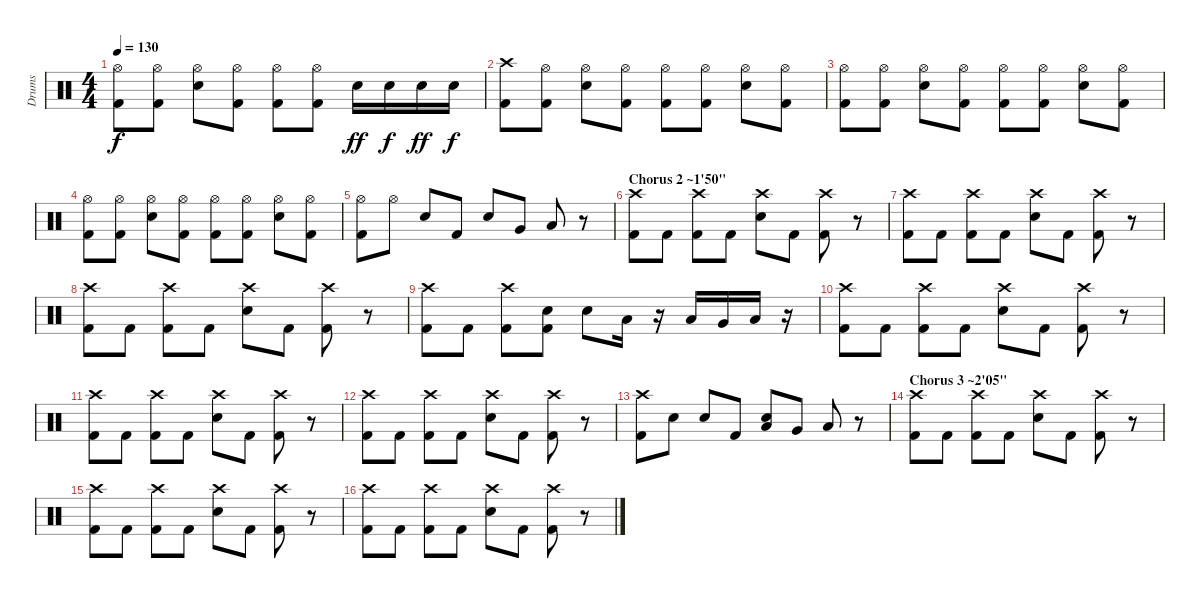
\track ("Drums" "Drums") {instrument percussion}
\staff {score}
\articulation defaults
\ts (4 4)
\tempo 130
\clef neutral
\ks c
("Hi-Hat (open)" "Kick (hit) 2").8{dy f} ("Hi-Hat (open)" "Kick (hit) 2").8 ("Hi-Hat (open)" "Electric Snare (hit)").8 ("Hi-Hat (open)" "Kick (hit) 2").8 ("Hi-Hat (open)" "Kick (hit) 2").8 ("Hi-Hat (open)" "Kick (hit) 2").8 "Electric Snare (hit)".16{dy ff} "Electric Snare (hit)".16{dy f} "Electric Snare (hit)".16{dy ff} "Electric Snare (hit)".16{dy f} |
("Kick (hit) 2" "Crash high (hit)").8 ("Hi-Hat (open)" "Kick (hit) 2").8 ("Hi-Hat (open)" "Electric Snare (hit)").8 ("Hi-Hat (open)" "Kick (hit) 2").8 ("Hi-Hat (open)" "Kick (hit) 2").8 ("Hi-Hat (open)" "Kick (hit) 2").8 ("Hi-Hat (open)" "Electric Snare (hit)").8 ("Hi-Hat (open)" "Kick (hit) 2").8 |
("Hi-Hat (open)" "Kick (hit) 2").8 ("Hi-Hat (open)" "Kick (hit) 2").8 ("Hi-Hat (open)" "Electric Snare (hit)").8 ("Hi-Hat (open)" "Kick (hit) 2").8 ("Hi-Hat (open)" "Kick (hit) 2").8 ("Hi-Hat (open)" "Kick (hit) 2").8 ("Hi-Hat (open)" "Electric Snare (hit)").8 ("Hi-Hat (open)" "Kick (hit) 2").8 |
("Hi-Hat (open)" "Kick (hit) 2").8 ("Hi-Hat (open)" "Kick (hit) 2").8 ("Hi-Hat (open)" "Electric Snare (hit)").8 ("Hi-Hat (open)" "Kick (hit) 2").8 ("Hi-Hat (open)" "Kick (hit) 2").8 ("Hi-Hat (open)" "Kick (hit) 2").8 ("Hi-Hat (open)" "Electric Snare (hit)").8 ("Hi-Hat (open)" "Kick (hit) 2").8 |
("Hi-Hat (open)" "Kick (hit) 2").8 "Hi-Hat (open)".8 "Electric Snare (hit)".8 "Kick (hit) 2".8 "Electric Snare (hit)".8 "Very Low Tom (hit)".8 "Low Floor Tom (hit)".8 r.8 |
\section ("" "Chorus 2 ~1'50\"")
("Crash high (hit)" "Kick (hit) 2").8 "Kick (hit) 2".8 ("Crash high (hit)" "Kick (hit) 2").8 "Kick (hit) 2".8 ("Crash high (hit)" "Electric Snare (hit)").8 "Kick (hit) 2".8 ("Crash high (hit)" "Kick (hit) 2").8 r.8 |
("Crash high (hit)" "Kick (hit) 2").8 "Kick (hit) 2".8 ("Crash high (hit)" "Kick (hit) 2").8 "Kick (hit) 2".8 ("Crash high (hit)" "Electric Snare (hit)").8 "Kick (hit) 2".8 ("Crash high (hit)" "Kick (hit) 2").8 r.8 |
("Crash high (hit)" "Kick (hit) 2").8 "Kick (hit) 2".8 ("Crash high (hit)" "Kick (hit) 2").8 "Kick (hit) 2".8 ("Crash high (hit)" "Electric Snare (hit)").8 "Kick (hit) 2".8 ("Crash high (hit)" "Kick (hit) 2").8 r.8 |
("Crash high (hit)" "Kick (hit) 2").8 "Kick (hit) 2".8 ("Crash high (hit)" "Kick (hit) 2").8 ("Electric Snare (hit)" "Kick (hit) 2").8 "Electric Snare (hit)".8 "Low Floor Tom (hit)".16 r.16 "Low Tom (hit)".16 "Very Low Tom (hit)".16 "Low Floor Tom (hit)".16 r.16 |
("Crash high (hit)" "Kick (hit) 2").8 "Kick (hit) 2".8 ("Crash high (hit)" "Kick (hit) 2").8 "Kick (hit) 2".8 ("Crash high (hit)" "Electric Snare (hit)").8 "Kick (hit) 2".8 ("Crash high (hit)" "Kick (hit) 2").8 r.8 |
("Crash high (hit)" "Kick (hit) 2").8 "Kick (hit) 2".8 ("Crash high (hit)" "Kick (hit) 2").8 "Kick (hit) 2".8 ("Crash high (hit)" "Electric Snare (hit)").8 "Kick (hit) 2".8 ("Crash high (hit)" "Kick (hit) 2").8 r.8 |
("Crash high (hit)" "Kick (hit) 2").8 "Kick (hit) 2".8 ("Crash high (hit)" "Kick (hit) 2").8 "Kick (hit) 2".8 ("Crash high (hit)" "Electric Snare (hit)").8 "Kick (hit) 2".8 ("Crash high (hit)" "Kick (hit) 2").8 r.8 |
("Crash high (hit)" "Kick (hit) 2").8 "Electric Snare (hit)".8 "Electric Snare (hit)".8 "Kick (hit) 2".8 ("Low Tom (hit)" "Electric Snare (hit)").8 "Very Low Tom (hit)".8 "Low Floor Tom (hit)".8 r.8 |
\section ("" "Chorus 3 ~2'05\"")
("Crash high (hit)" "Kick (hit) 2").8 "Kick (hit) 2".8 ("Crash high (hit)" "Kick (hit) 2").8 "Kick (hit) 2".8 ("Crash high (hit)" "Electric Snare (hit)").8 "Kick (hit) 2".8 ("Crash high (hit)" "Kick (hit) 2").8 r.8 |
("Crash high (hit)" "Kick (hit) 2").8 "Kick (hit) 2".8 ("Crash high (hit)" "Kick (hit) 2").8 "Kick (hit) 2".8 ("Crash high (hit)" "Electric Snare (hit)").8 "Kick (hit) 2".8 ("Crash high (hit)" "Kick (hit) 2").8 r.8 |
("Crash high (hit)" "Kick (hit) 2").8 "Kick (hit) 2".8 ("Crash high (hit)" "Kick (hit) 2").8 "Kick (hit) 2".8 ("Crash high (hit)" "Electric Snare (hit)").8 "Kick (hit) 2".8 ("Crash high (hit)" "Kick (hit) 2").8 r.8
